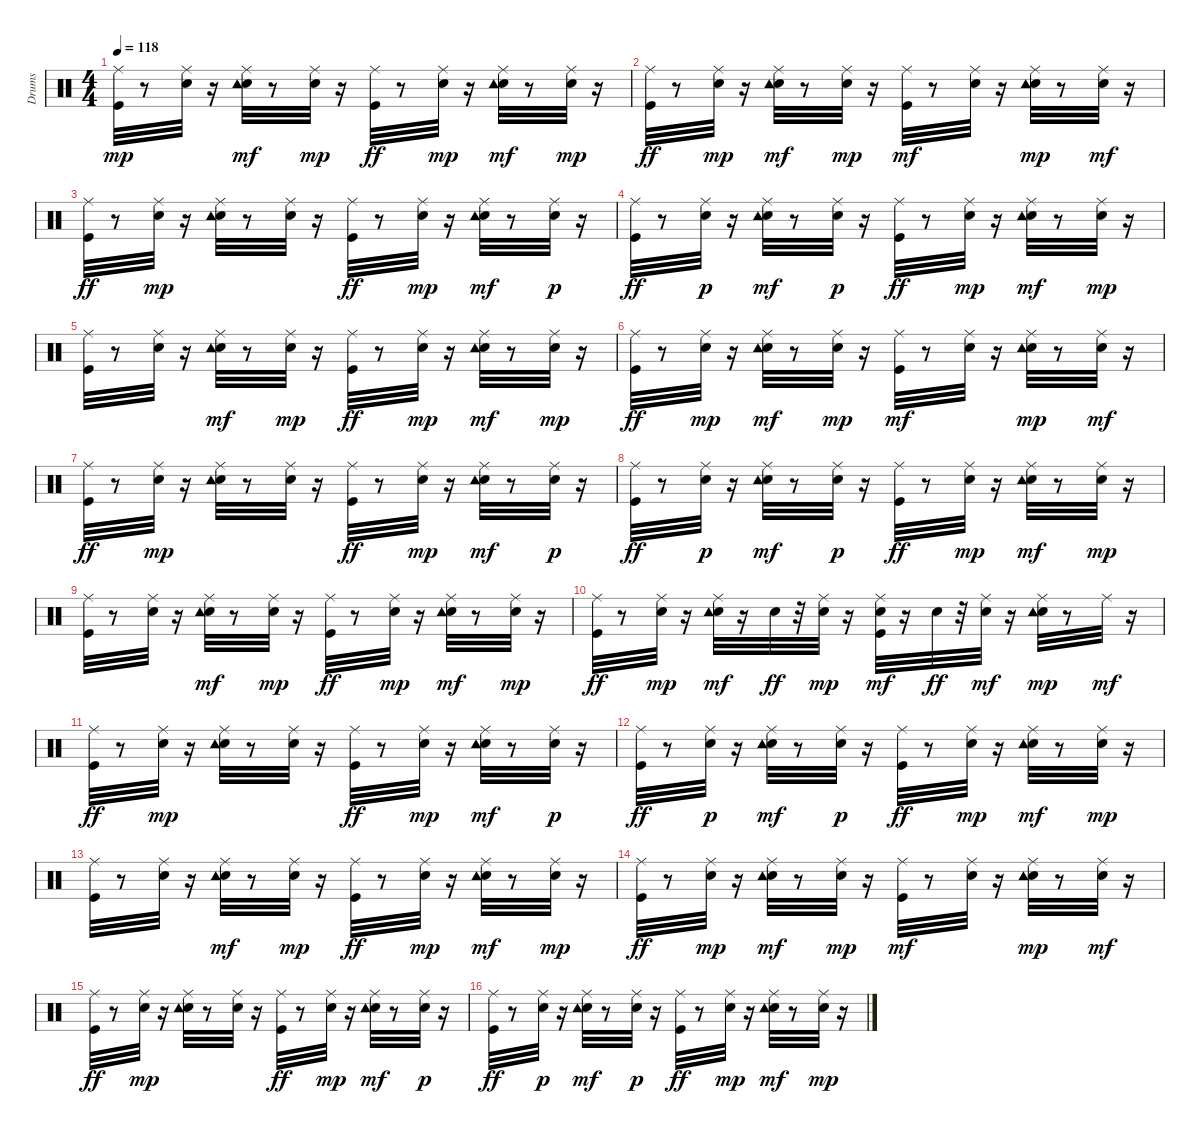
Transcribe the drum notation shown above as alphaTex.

\track ("Drums" "Drums") {instrument percussion}
\staff {score}
\articulation defaults
\ts (4 4)
\tempo 118
\clef neutral
\ks c
("Kick (hit)" "Ride (middle)").32{dy mp} r.8 ("Electric Snare (hit)" "Ride (middle)").32 r.16 ("Electric Snare (hit)" "Ride (middle)" "Tambourine (hit)").32{dy mf} r.8 ("Electric Snare (hit)" "Ride (middle)").32{dy mp} r.16 ("Ride (middle)" "Kick (hit)").32{dy ff} r.8 ("Electric Snare (hit)" "Ride (middle)").32{dy mp} r.16 ("Electric Snare (hit)" "Ride (middle)" "Tambourine (hit)").32{dy mf} r.8 ("Electric Snare (hit)" "Ride (middle)").32{dy mp} r.16 |
("Ride (middle)" "Kick (hit)").32{dy ff} r.8 ("Electric Snare (hit)" "Ride (middle)").32{dy mp} r.16 ("Electric Snare (hit)" "Ride (middle)" "Tambourine (hit)").32{dy mf} r.8 ("Electric Snare (hit)" "Ride (middle)").32{dy mp} r.16 ("Kick (hit)" "Ride (middle)").32{dy mf} r.8 ("Electric Snare (hit)" "Ride (middle)").32 r.16 ("Electric Snare (hit)" "Ride (middle)" "Tambourine (hit)").32{dy mp} r.8 ("Electric Snare (hit)" "Ride (middle)").32{dy mf} r.16 |
("Ride (middle)" "Kick (hit)").32{dy ff} r.8 ("Electric Snare (hit)" "Ride (middle)").32{dy mp} r.16 ("Electric Snare (hit)" "Tambourine (hit)" "Ride (middle)").32 r.8 ("Electric Snare (hit)" "Ride (middle)").32 r.16 ("Ride (middle)" "Kick (hit)").32{dy ff} r.8 ("Electric Snare (hit)" "Ride (middle)").32{dy mp} r.16 ("Electric Snare (hit)" "Ride (middle)" "Tambourine (hit)").32{dy mf} r.8 ("Ride (middle)" "Electric Snare (hit)").32{dy p} r.16 |
("Ride (middle)" "Kick (hit)").32{dy ff} r.8 ("Electric Snare (hit)" "Ride (middle)").32{dy p} r.16 ("Electric Snare (hit)" "Ride (middle)" "Tambourine (hit)").32{dy mf} r.8 ("Ride (middle)" "Electric Snare (hit)").32{dy p} r.16 ("Ride (middle)" "Kick (hit)").32{dy ff} r.8 ("Electric Snare (hit)" "Ride (middle)").32{dy mp} r.16 ("Electric Snare (hit)" "Ride (middle)" "Tambourine (hit)").32{dy mf} r.8 ("Electric Snare (hit)" "Ride (middle)").32{dy mp} r.16 |
("Kick (hit)" "Ride (middle)").32 r.8 ("Electric Snare (hit)" "Ride (middle)").32 r.16 ("Electric Snare (hit)" "Ride (middle)" "Tambourine (hit)").32{dy mf} r.8 ("Electric Snare (hit)" "Ride (middle)").32{dy mp} r.16 ("Ride (middle)" "Kick (hit)").32{dy ff} r.8 ("Electric Snare (hit)" "Ride (middle)").32{dy mp} r.16 ("Electric Snare (hit)" "Ride (middle)" "Tambourine (hit)").32{dy mf} r.8 ("Electric Snare (hit)" "Ride (middle)").32{dy mp} r.16 |
("Ride (middle)" "Kick (hit)").32{dy ff} r.8 ("Electric Snare (hit)" "Ride (middle)").32{dy mp} r.16 ("Electric Snare (hit)" "Ride (middle)" "Tambourine (hit)").32{dy mf} r.8 ("Electric Snare (hit)" "Ride (middle)").32{dy mp} r.16 ("Kick (hit)" "Ride (middle)").32{dy mf} r.8 ("Electric Snare (hit)" "Ride (middle)").32 r.16 ("Electric Snare (hit)" "Ride (middle)" "Tambourine (hit)").32{dy mp} r.8 ("Electric Snare (hit)" "Ride (middle)").32{dy mf} r.16 |
("Ride (middle)" "Kick (hit)").32{dy ff} r.8 ("Electric Snare (hit)" "Ride (middle)").32{dy mp} r.16 ("Electric Snare (hit)" "Tambourine (hit)" "Ride (middle)").32 r.8 ("Electric Snare (hit)" "Ride (middle)").32 r.16 ("Ride (middle)" "Kick (hit)").32{dy ff} r.8 ("Electric Snare (hit)" "Ride (middle)").32{dy mp} r.16 ("Electric Snare (hit)" "Ride (middle)" "Tambourine (hit)").32{dy mf} r.8 ("Ride (middle)" "Electric Snare (hit)").32{dy p} r.16 |
("Ride (middle)" "Kick (hit)").32{dy ff} r.8 ("Electric Snare (hit)" "Ride (middle)").32{dy p} r.16 ("Electric Snare (hit)" "Ride (middle)" "Tambourine (hit)").32{dy mf} r.8 ("Ride (middle)" "Electric Snare (hit)").32{dy p} r.16 ("Ride (middle)" "Kick (hit)").32{dy ff} r.8 ("Electric Snare (hit)" "Ride (middle)").32{dy mp} r.16 ("Electric Snare (hit)" "Ride (middle)" "Tambourine (hit)").32{dy mf} r.8 ("Electric Snare (hit)" "Ride (middle)").32{dy mp} r.16 |
("Kick (hit)" "Ride (middle)").32 r.8 ("Electric Snare (hit)" "Ride (middle)").32 r.16 ("Electric Snare (hit)" "Ride (middle)" "Tambourine (hit)").32{dy mf} r.8 ("Electric Snare (hit)" "Ride (middle)").32{dy mp} r.16 ("Ride (middle)" "Kick (hit)").32{dy ff} r.8 ("Electric Snare (hit)" "Ride (middle)").32{dy mp} r.16 ("Electric Snare (hit)" "Ride (middle)" "Tambourine (hit)").32{dy mf} r.8 ("Electric Snare (hit)" "Ride (middle)").32{dy mp} r.16 |
("Ride (middle)" "Kick (hit)").32{dy ff} r.8 ("Electric Snare (hit)" "Ride (middle)").32{dy mp} r.16 ("Electric Snare (hit)" "Ride (middle)" "Tambourine (hit)").32{dy mf} r.16 "Electric Snare (hit)".32{dy ff} r.32 ("Electric Snare (hit)" "Ride (middle)").32{dy mp} r.16 ("Electric Snare (hit)" "Kick (hit)" "Ride (middle)").32{dy mf} r.16 "Electric Snare (hit)".32{dy ff} r.32 ("Electric Snare (hit)" "Ride (middle)").32{dy mf} r.16 ("Electric Snare (hit)" "Ride (middle)" "Tambourine (hit)").32{dy mp} r.8 "Ride (middle)".32{dy mf} r.16 |
("Ride (middle)" "Kick (hit)").32{dy ff} r.8 ("Electric Snare (hit)" "Ride (middle)").32{dy mp} r.16 ("Electric Snare (hit)" "Tambourine (hit)" "Ride (middle)").32 r.8 ("Electric Snare (hit)" "Ride (middle)").32 r.16 ("Ride (middle)" "Kick (hit)").32{dy ff} r.8 ("Electric Snare (hit)" "Ride (middle)").32{dy mp} r.16 ("Electric Snare (hit)" "Ride (middle)" "Tambourine (hit)").32{dy mf} r.8 ("Ride (middle)" "Electric Snare (hit)").32{dy p} r.16 |
("Ride (middle)" "Kick (hit)").32{dy ff} r.8 ("Electric Snare (hit)" "Ride (middle)").32{dy p} r.16 ("Electric Snare (hit)" "Ride (middle)" "Tambourine (hit)").32{dy mf} r.8 ("Ride (middle)" "Electric Snare (hit)").32{dy p} r.16 ("Ride (middle)" "Kick (hit)").32{dy ff} r.8 ("Electric Snare (hit)" "Ride (middle)").32{dy mp} r.16 ("Electric Snare (hit)" "Ride (middle)" "Tambourine (hit)").32{dy mf} r.8 ("Electric Snare (hit)" "Ride (middle)").32{dy mp} r.16 |
("Kick (hit)" "Ride (middle)").32 r.8 ("Electric Snare (hit)" "Ride (middle)").32 r.16 ("Electric Snare (hit)" "Ride (middle)" "Tambourine (hit)").32{dy mf} r.8 ("Electric Snare (hit)" "Ride (middle)").32{dy mp} r.16 ("Ride (middle)" "Kick (hit)").32{dy ff} r.8 ("Electric Snare (hit)" "Ride (middle)").32{dy mp} r.16 ("Electric Snare (hit)" "Ride (middle)" "Tambourine (hit)").32{dy mf} r.8 ("Electric Snare (hit)" "Ride (middle)").32{dy mp} r.16 |
("Ride (middle)" "Kick (hit)").32{dy ff} r.8 ("Electric Snare (hit)" "Ride (middle)").32{dy mp} r.16 ("Electric Snare (hit)" "Ride (middle)" "Tambourine (hit)").32{dy mf} r.8 ("Electric Snare (hit)" "Ride (middle)").32{dy mp} r.16 ("Kick (hit)" "Ride (middle)").32{dy mf} r.8 ("Electric Snare (hit)" "Ride (middle)").32 r.16 ("Electric Snare (hit)" "Ride (middle)" "Tambourine (hit)").32{dy mp} r.8 ("Electric Snare (hit)" "Ride (middle)").32{dy mf} r.16 |
("Ride (middle)" "Kick (hit)").32{dy ff} r.8 ("Electric Snare (hit)" "Ride (middle)").32{dy mp} r.16 ("Electric Snare (hit)" "Tambourine (hit)" "Ride (middle)").32 r.8 ("Electric Snare (hit)" "Ride (middle)").32 r.16 ("Ride (middle)" "Kick (hit)").32{dy ff} r.8 ("Electric Snare (hit)" "Ride (middle)").32{dy mp} r.16 ("Electric Snare (hit)" "Ride (middle)" "Tambourine (hit)").32{dy mf} r.8 ("Ride (middle)" "Electric Snare (hit)").32{dy p} r.16 |
("Ride (middle)" "Kick (hit)").32{dy ff} r.8 ("Electric Snare (hit)" "Ride (middle)").32{dy p} r.16 ("Electric Snare (hit)" "Ride (middle)" "Tambourine (hit)").32{dy mf} r.8 ("Ride (middle)" "Electric Snare (hit)").32{dy p} r.16 ("Ride (middle)" "Kick (hit)").32{dy ff} r.8 ("Electric Snare (hit)" "Ride (middle)").32{dy mp} r.16 ("Electric Snare (hit)" "Ride (middle)" "Tambourine (hit)").32{dy mf} r.8 ("Electric Snare (hit)" "Ride (middle)").32{dy mp} r.16
